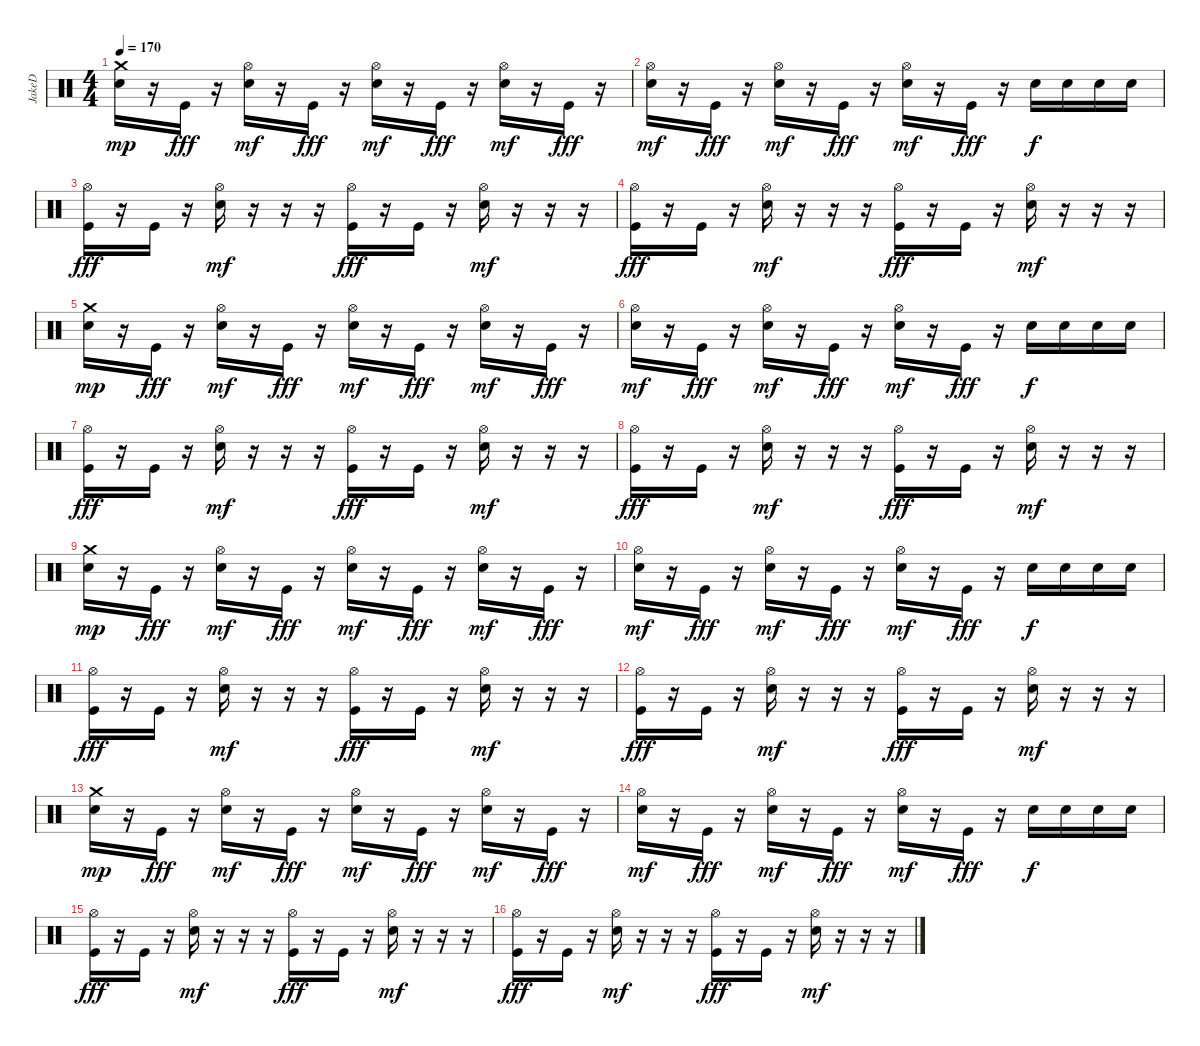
\track ("JakeD" "JakeD") {instrument percussion}
\staff {score}
\articulation defaults
\ts (4 4)
\tempo 170
\clef neutral
\ks c
("Crash medium (hit)" "Electric Snare (hit)").16{dy mp} r.16 "Kick (hit)".16{dy fff} r.16 ("Hi-Hat (open)" "Electric Snare (hit)").16{dy mf} r.16 "Kick (hit)".16{dy fff} r.16 ("Hi-Hat (open)" "Electric Snare (hit)").16{dy mf} r.16 "Kick (hit)".16{dy fff} r.16 ("Hi-Hat (open)" "Electric Snare (hit)").16{dy mf} r.16 "Kick (hit)".16{dy fff} r.16 |
("Hi-Hat (open)" "Electric Snare (hit)").16{dy mf} r.16 "Kick (hit)".16{dy fff} r.16 ("Hi-Hat (open)" "Electric Snare (hit)").16{dy mf} r.16 "Kick (hit)".16{dy fff} r.16 ("Hi-Hat (open)" "Electric Snare (hit)").16{dy mf} r.16 "Kick (hit)".16{dy fff} r.16 "Electric Snare (hit)".16{dy f} "Electric Snare (hit)".16 "Electric Snare (hit)".16 "Electric Snare (hit)".16 |
("Hi-Hat (open)" "Kick (hit)").16{dy fff} r.16 "Kick (hit)".16 r.16 ("Hi-Hat (open)" "Electric Snare (hit)").16{dy mf} r.16 r.16 r.16 ("Hi-Hat (open)" "Kick (hit)").16{dy fff} r.16 "Kick (hit)".16 r.16 ("Hi-Hat (open)" "Electric Snare (hit)").16{dy mf} r.16 r.16 r.16 |
("Hi-Hat (open)" "Kick (hit)").16{dy fff} r.16 "Kick (hit)".16 r.16 ("Hi-Hat (open)" "Electric Snare (hit)").16{dy mf} r.16 r.16 r.16 ("Hi-Hat (open)" "Kick (hit)").16{dy fff} r.16 "Kick (hit)".16 r.16 ("Hi-Hat (open)" "Electric Snare (hit)").16{dy mf} r.16 r.16 r.16 |
("Crash medium (hit)" "Electric Snare (hit)").16{dy mp} r.16 "Kick (hit)".16{dy fff} r.16 ("Hi-Hat (open)" "Electric Snare (hit)").16{dy mf} r.16 "Kick (hit)".16{dy fff} r.16 ("Hi-Hat (open)" "Electric Snare (hit)").16{dy mf} r.16 "Kick (hit)".16{dy fff} r.16 ("Hi-Hat (open)" "Electric Snare (hit)").16{dy mf} r.16 "Kick (hit)".16{dy fff} r.16 |
("Hi-Hat (open)" "Electric Snare (hit)").16{dy mf} r.16 "Kick (hit)".16{dy fff} r.16 ("Hi-Hat (open)" "Electric Snare (hit)").16{dy mf} r.16 "Kick (hit)".16{dy fff} r.16 ("Hi-Hat (open)" "Electric Snare (hit)").16{dy mf} r.16 "Kick (hit)".16{dy fff} r.16 "Electric Snare (hit)".16{dy f} "Electric Snare (hit)".16 "Electric Snare (hit)".16 "Electric Snare (hit)".16 |
("Hi-Hat (open)" "Kick (hit)").16{dy fff} r.16 "Kick (hit)".16 r.16 ("Hi-Hat (open)" "Electric Snare (hit)").16{dy mf} r.16 r.16 r.16 ("Hi-Hat (open)" "Kick (hit)").16{dy fff} r.16 "Kick (hit)".16 r.16 ("Hi-Hat (open)" "Electric Snare (hit)").16{dy mf} r.16 r.16 r.16 |
("Hi-Hat (open)" "Kick (hit)").16{dy fff} r.16 "Kick (hit)".16 r.16 ("Hi-Hat (open)" "Electric Snare (hit)").16{dy mf} r.16 r.16 r.16 ("Hi-Hat (open)" "Kick (hit)").16{dy fff} r.16 "Kick (hit)".16 r.16 ("Hi-Hat (open)" "Electric Snare (hit)").16{dy mf} r.16 r.16 r.16 |
("Crash medium (hit)" "Electric Snare (hit)").16{dy mp} r.16 "Kick (hit)".16{dy fff} r.16 ("Hi-Hat (open)" "Electric Snare (hit)").16{dy mf} r.16 "Kick (hit)".16{dy fff} r.16 ("Hi-Hat (open)" "Electric Snare (hit)").16{dy mf} r.16 "Kick (hit)".16{dy fff} r.16 ("Hi-Hat (open)" "Electric Snare (hit)").16{dy mf} r.16 "Kick (hit)".16{dy fff} r.16 |
("Hi-Hat (open)" "Electric Snare (hit)").16{dy mf} r.16 "Kick (hit)".16{dy fff} r.16 ("Hi-Hat (open)" "Electric Snare (hit)").16{dy mf} r.16 "Kick (hit)".16{dy fff} r.16 ("Hi-Hat (open)" "Electric Snare (hit)").16{dy mf} r.16 "Kick (hit)".16{dy fff} r.16 "Electric Snare (hit)".16{dy f} "Electric Snare (hit)".16 "Electric Snare (hit)".16 "Electric Snare (hit)".16 |
("Hi-Hat (open)" "Kick (hit)").16{dy fff} r.16 "Kick (hit)".16 r.16 ("Hi-Hat (open)" "Electric Snare (hit)").16{dy mf} r.16 r.16 r.16 ("Hi-Hat (open)" "Kick (hit)").16{dy fff} r.16 "Kick (hit)".16 r.16 ("Hi-Hat (open)" "Electric Snare (hit)").16{dy mf} r.16 r.16 r.16 |
("Hi-Hat (open)" "Kick (hit)").16{dy fff} r.16 "Kick (hit)".16 r.16 ("Hi-Hat (open)" "Electric Snare (hit)").16{dy mf} r.16 r.16 r.16 ("Hi-Hat (open)" "Kick (hit)").16{dy fff} r.16 "Kick (hit)".16 r.16 ("Hi-Hat (open)" "Electric Snare (hit)").16{dy mf} r.16 r.16 r.16 |
("Crash medium (hit)" "Electric Snare (hit)").16{dy mp} r.16 "Kick (hit)".16{dy fff} r.16 ("Hi-Hat (open)" "Electric Snare (hit)").16{dy mf} r.16 "Kick (hit)".16{dy fff} r.16 ("Hi-Hat (open)" "Electric Snare (hit)").16{dy mf} r.16 "Kick (hit)".16{dy fff} r.16 ("Hi-Hat (open)" "Electric Snare (hit)").16{dy mf} r.16 "Kick (hit)".16{dy fff} r.16 |
("Hi-Hat (open)" "Electric Snare (hit)").16{dy mf} r.16 "Kick (hit)".16{dy fff} r.16 ("Hi-Hat (open)" "Electric Snare (hit)").16{dy mf} r.16 "Kick (hit)".16{dy fff} r.16 ("Hi-Hat (open)" "Electric Snare (hit)").16{dy mf} r.16 "Kick (hit)".16{dy fff} r.16 "Electric Snare (hit)".16{dy f} "Electric Snare (hit)".16 "Electric Snare (hit)".16 "Electric Snare (hit)".16 |
("Hi-Hat (open)" "Kick (hit)").16{dy fff} r.16 "Kick (hit)".16 r.16 ("Hi-Hat (open)" "Electric Snare (hit)").16{dy mf} r.16 r.16 r.16 ("Hi-Hat (open)" "Kick (hit)").16{dy fff} r.16 "Kick (hit)".16 r.16 ("Hi-Hat (open)" "Electric Snare (hit)").16{dy mf} r.16 r.16 r.16 |
("Hi-Hat (open)" "Kick (hit)").16{dy fff} r.16 "Kick (hit)".16 r.16 ("Hi-Hat (open)" "Electric Snare (hit)").16{dy mf} r.16 r.16 r.16 ("Hi-Hat (open)" "Kick (hit)").16{dy fff} r.16 "Kick (hit)".16 r.16 ("Hi-Hat (open)" "Electric Snare (hit)").16{dy mf} r.16 r.16 r.16
